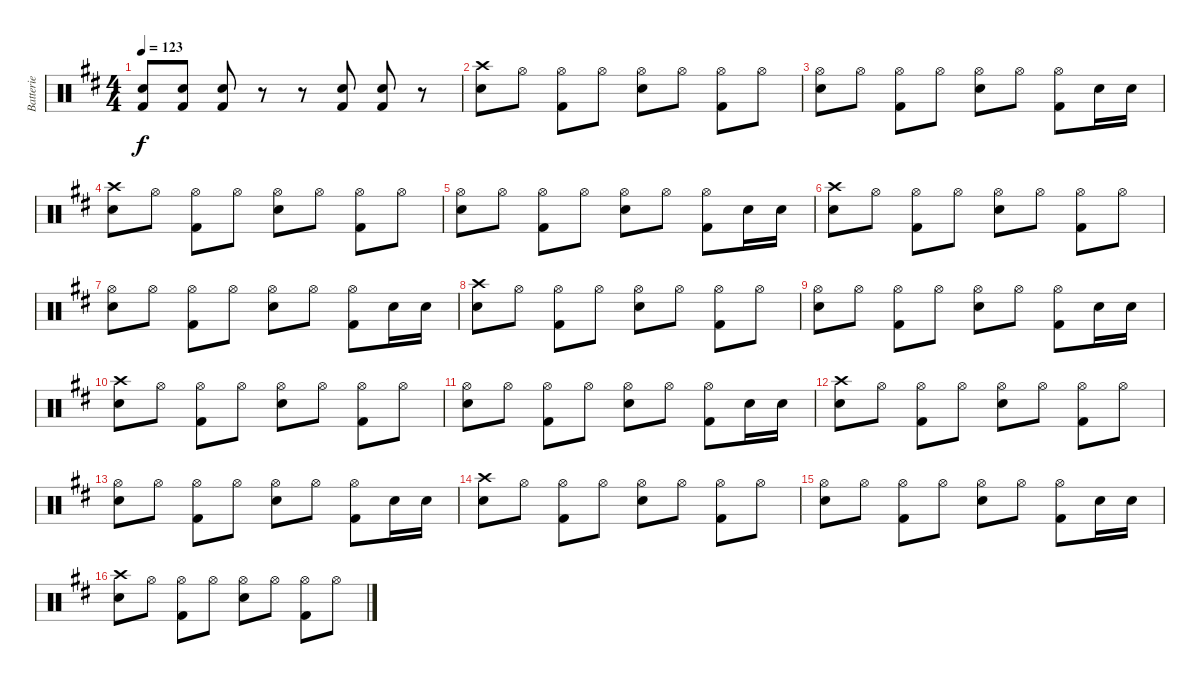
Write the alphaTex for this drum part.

\track ("Batterie" "Batterie") {instrument percussion}
\staff {score}
\articulation defaults
\ts (4 4)
\tempo 123
\clef neutral
\ks d
("Snare (hit) 2" "Kick (hit) 2").8{dy f} ("Snare (hit) 2" "Kick (hit) 2").8 ("Snare (hit) 2" "Kick (hit) 2").8 r.8 r.8 ("Snare (hit) 2" "Kick (hit) 2").8 ("Snare (hit) 2" "Kick (hit) 2").8 r.8 |
("Crash high (hit)" "Snare (hit) 2").8 "Hi-Hat (open)".8 ("Hi-Hat (open)" "Kick (hit) 2").8 "Hi-Hat (open)".8 ("Hi-Hat (open)" "Snare (hit) 2").8 "Hi-Hat (open)".8 ("Hi-Hat (open)" "Kick (hit) 2").8 "Hi-Hat (open)".8 |
("Hi-Hat (open)" "Snare (hit) 2").8 "Hi-Hat (open)".8 ("Hi-Hat (open)" "Kick (hit) 2").8 "Hi-Hat (open)".8 ("Hi-Hat (open)" "Snare (hit) 2").8 "Hi-Hat (open)".8 ("Hi-Hat (open)" "Kick (hit) 2").8 "Snare (hit) 2".16 "Snare (hit) 2".16 |
("Crash high (hit)" "Snare (hit) 2").8 "Hi-Hat (open)".8 ("Hi-Hat (open)" "Kick (hit) 2").8 "Hi-Hat (open)".8 ("Hi-Hat (open)" "Snare (hit) 2").8 "Hi-Hat (open)".8 ("Hi-Hat (open)" "Kick (hit) 2").8 "Hi-Hat (open)".8 |
("Hi-Hat (open)" "Snare (hit) 2").8 "Hi-Hat (open)".8 ("Hi-Hat (open)" "Kick (hit) 2").8 "Hi-Hat (open)".8 ("Hi-Hat (open)" "Snare (hit) 2").8 "Hi-Hat (open)".8 ("Hi-Hat (open)" "Kick (hit) 2").8 "Snare (hit) 2".16 "Snare (hit) 2".16 |
("Crash high (hit)" "Snare (hit) 2").8 "Hi-Hat (open)".8 ("Hi-Hat (open)" "Kick (hit) 2").8 "Hi-Hat (open)".8 ("Hi-Hat (open)" "Snare (hit) 2").8 "Hi-Hat (open)".8 ("Hi-Hat (open)" "Kick (hit) 2").8 "Hi-Hat (open)".8 |
("Hi-Hat (open)" "Snare (hit) 2").8 "Hi-Hat (open)".8 ("Hi-Hat (open)" "Kick (hit) 2").8 "Hi-Hat (open)".8 ("Hi-Hat (open)" "Snare (hit) 2").8 "Hi-Hat (open)".8 ("Hi-Hat (open)" "Kick (hit) 2").8 "Snare (hit) 2".16 "Snare (hit) 2".16 |
("Crash high (hit)" "Snare (hit) 2").8 "Hi-Hat (open)".8 ("Hi-Hat (open)" "Kick (hit) 2").8 "Hi-Hat (open)".8 ("Hi-Hat (open)" "Snare (hit) 2").8 "Hi-Hat (open)".8 ("Hi-Hat (open)" "Kick (hit) 2").8 "Hi-Hat (open)".8 |
("Hi-Hat (open)" "Snare (hit) 2").8 "Hi-Hat (open)".8 ("Hi-Hat (open)" "Kick (hit) 2").8 "Hi-Hat (open)".8 ("Hi-Hat (open)" "Snare (hit) 2").8 "Hi-Hat (open)".8 ("Hi-Hat (open)" "Kick (hit) 2").8 "Snare (hit) 2".16 "Snare (hit) 2".16 |
("Crash high (hit)" "Snare (hit) 2").8 "Hi-Hat (open)".8 ("Hi-Hat (open)" "Kick (hit) 2").8 "Hi-Hat (open)".8 ("Hi-Hat (open)" "Snare (hit) 2").8 "Hi-Hat (open)".8 ("Hi-Hat (open)" "Kick (hit) 2").8 "Hi-Hat (open)".8 |
("Hi-Hat (open)" "Snare (hit) 2").8 "Hi-Hat (open)".8 ("Hi-Hat (open)" "Kick (hit) 2").8 "Hi-Hat (open)".8 ("Hi-Hat (open)" "Snare (hit) 2").8 "Hi-Hat (open)".8 ("Hi-Hat (open)" "Kick (hit) 2").8 "Snare (hit) 2".16 "Snare (hit) 2".16 |
("Crash high (hit)" "Snare (hit) 2").8 "Hi-Hat (open)".8 ("Hi-Hat (open)" "Kick (hit) 2").8 "Hi-Hat (open)".8 ("Hi-Hat (open)" "Snare (hit) 2").8 "Hi-Hat (open)".8 ("Hi-Hat (open)" "Kick (hit) 2").8 "Hi-Hat (open)".8 |
("Hi-Hat (open)" "Snare (hit) 2").8 "Hi-Hat (open)".8 ("Hi-Hat (open)" "Kick (hit) 2").8 "Hi-Hat (open)".8 ("Hi-Hat (open)" "Snare (hit) 2").8 "Hi-Hat (open)".8 ("Hi-Hat (open)" "Kick (hit) 2").8 "Snare (hit) 2".16 "Snare (hit) 2".16 |
("Crash high (hit)" "Snare (hit) 2").8 "Hi-Hat (open)".8 ("Hi-Hat (open)" "Kick (hit) 2").8 "Hi-Hat (open)".8 ("Hi-Hat (open)" "Snare (hit) 2").8 "Hi-Hat (open)".8 ("Hi-Hat (open)" "Kick (hit) 2").8 "Hi-Hat (open)".8 |
("Hi-Hat (open)" "Snare (hit) 2").8 "Hi-Hat (open)".8 ("Hi-Hat (open)" "Kick (hit) 2").8 "Hi-Hat (open)".8 ("Hi-Hat (open)" "Snare (hit) 2").8 "Hi-Hat (open)".8 ("Hi-Hat (open)" "Kick (hit) 2").8 "Snare (hit) 2".16 "Snare (hit) 2".16 |
("Crash high (hit)" "Snare (hit) 2").8 "Hi-Hat (open)".8 ("Hi-Hat (open)" "Kick (hit) 2").8 "Hi-Hat (open)".8 ("Hi-Hat (open)" "Snare (hit) 2").8 "Hi-Hat (open)".8 ("Hi-Hat (open)" "Kick (hit) 2").8 "Hi-Hat (open)".8
